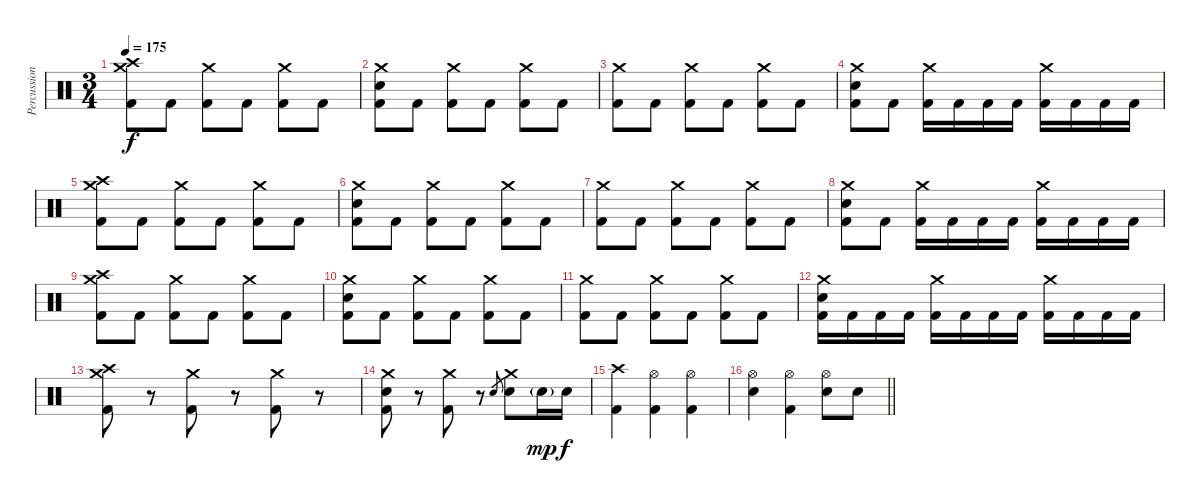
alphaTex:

\track ("Percussion" "Percussion") {instrument percussion}
\staff {score}
\articulation defaults
\ts (3 4)
\tempo 175
\clef neutral
\ks c
("Crash high (hit)" "Crash medium (hit)" "Kick (hit) 2").8{dy f} "Kick (hit) 2".8 ("Crash medium (hit)" "Kick (hit) 2").8 "Kick (hit) 2".8 ("Crash medium (hit)" "Kick (hit) 2").8 "Kick (hit) 2".8 |
("Crash medium (hit)" "Electric Snare (hit)" "Kick (hit) 2").8 "Kick (hit) 2".8 ("Crash medium (hit)" "Kick (hit) 2").8 "Kick (hit) 2".8 ("Crash medium (hit)" "Kick (hit) 2").8 "Kick (hit) 2".8 |
("Crash medium (hit)" "Kick (hit) 2").8 "Kick (hit) 2".8 ("Crash medium (hit)" "Kick (hit) 2").8 "Kick (hit) 2".8 ("Crash medium (hit)" "Kick (hit) 2").8 "Kick (hit) 2".8 |
("Crash medium (hit)" "Electric Snare (hit)" "Kick (hit) 2").8 "Kick (hit) 2".8 ("Crash medium (hit)" "Kick (hit) 2").16 "Kick (hit) 2".16 "Kick (hit) 2".16 "Kick (hit) 2".16 ("Crash medium (hit)" "Kick (hit) 2").16 "Kick (hit) 2".16 "Kick (hit) 2".16 "Kick (hit) 2".16 |
("Crash high (hit)" "Crash medium (hit)" "Kick (hit) 2").8 "Kick (hit) 2".8 ("Crash medium (hit)" "Kick (hit) 2").8 "Kick (hit) 2".8 ("Crash medium (hit)" "Kick (hit) 2").8 "Kick (hit) 2".8 |
("Crash medium (hit)" "Electric Snare (hit)" "Kick (hit) 2").8 "Kick (hit) 2".8 ("Crash medium (hit)" "Kick (hit) 2").8 "Kick (hit) 2".8 ("Crash medium (hit)" "Kick (hit) 2").8 "Kick (hit) 2".8 |
("Crash medium (hit)" "Kick (hit) 2").8 "Kick (hit) 2".8 ("Crash medium (hit)" "Kick (hit) 2").8 "Kick (hit) 2".8 ("Crash medium (hit)" "Kick (hit) 2").8 "Kick (hit) 2".8 |
("Crash medium (hit)" "Electric Snare (hit)" "Kick (hit) 2").8 "Kick (hit) 2".8 ("Crash medium (hit)" "Kick (hit) 2").16 "Kick (hit) 2".16 "Kick (hit) 2".16 "Kick (hit) 2".16 ("Crash medium (hit)" "Kick (hit) 2").16 "Kick (hit) 2".16 "Kick (hit) 2".16 "Kick (hit) 2".16 |
("Crash high (hit)" "Crash medium (hit)" "Kick (hit) 2").8 "Kick (hit) 2".8 ("Crash medium (hit)" "Kick (hit) 2").8 "Kick (hit) 2".8 ("Crash medium (hit)" "Kick (hit) 2").8 "Kick (hit) 2".8 |
("Crash medium (hit)" "Electric Snare (hit)" "Kick (hit) 2").8 "Kick (hit) 2".8 ("Crash medium (hit)" "Kick (hit) 2").8 "Kick (hit) 2".8 ("Crash medium (hit)" "Kick (hit) 2").8 "Kick (hit) 2".8 |
("Crash medium (hit)" "Kick (hit) 2").8 "Kick (hit) 2".8 ("Crash medium (hit)" "Kick (hit) 2").8 "Kick (hit) 2".8 ("Crash medium (hit)" "Kick (hit) 2").8 "Kick (hit) 2".8 |
("Crash medium (hit)" "Electric Snare (hit)" "Kick (hit) 2").16 "Kick (hit) 2".16 "Kick (hit) 2".16 "Kick (hit) 2".16 ("Crash medium (hit)" "Kick (hit) 2").16 "Kick (hit) 2".16 "Kick (hit) 2".16 "Kick (hit) 2".16 ("Crash medium (hit)" "Kick (hit) 2").16 "Kick (hit) 2".16 "Kick (hit) 2".16 "Kick (hit) 2".16 |
("Crash high (hit)" "Crash medium (hit)" "Kick (hit) 2").8 r.8 ("Crash medium (hit)" "Kick (hit) 2").8 r.8 ("Crash medium (hit)" "Kick (hit) 2").8 r.8 |
("Crash medium (hit)" "Electric Snare (hit)" "Kick (hit) 2").8 r.8 ("Crash medium (hit)" "Kick (hit) 2").8 r.8 "Electric Snare (hit)".8{gr} ("Crash medium (hit)" "Electric Snare (hit)").8 "Electric Snare (hit)"{g}.16{dy mp} "Electric Snare (hit)".16{dy f} |
("Crash high (hit)" "Kick (hit) 2").4 ("Hi-Hat (open)" "Kick (hit) 2").4 ("Hi-Hat (open)" "Kick (hit) 2").4 |
\barLineRight lightlight
("Hi-Hat (open)" "Electric Snare (hit)").4 ("Hi-Hat (open)" "Kick (hit) 2").4 ("Hi-Hat (open)" "Electric Snare (hit)").8 "Electric Snare (hit)".8
